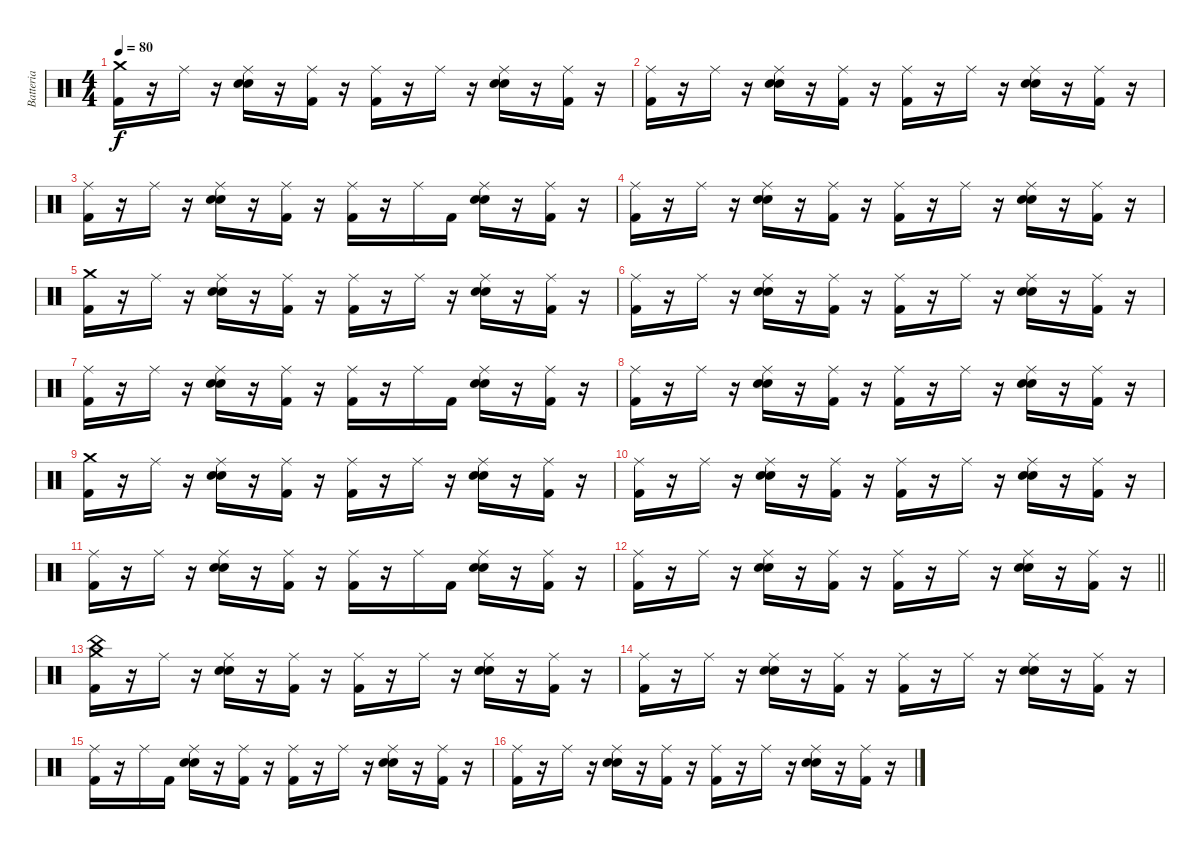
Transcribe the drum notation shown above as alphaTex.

\track ("Batteria" "Batteria") {instrument percussion}
\staff {score}
\articulation defaults
\ts (4 4)
\tempo 80
\clef neutral
\ks c
("Kick (hit) 2" "Crash medium (hit)").16{dy f} r.16 "Ride (middle)".16 r.16 ("Snare (hit) 2" "Snare (hit) 2" "Ride (middle)").16 r.16 ("Kick (hit) 2" "Ride (middle)").16 r.16 ("Kick (hit) 2" "Ride (middle)").16 r.16 "Ride (middle)".16 r.16 ("Snare (hit) 2" "Snare (hit) 2" "Ride (middle)").16 r.16 ("Kick (hit) 2" "Ride (middle)").16 r.16 |
("Kick (hit) 2" "Ride (middle)").16 r.16 "Ride (middle)".16 r.16 ("Snare (hit) 2" "Snare (hit) 2" "Ride (middle)").16 r.16 ("Kick (hit) 2" "Ride (middle)").16 r.16 ("Kick (hit) 2" "Ride (middle)").16 r.16 "Ride (middle)".16 r.16 ("Snare (hit) 2" "Snare (hit) 2" "Ride (middle)").16 r.16 ("Kick (hit) 2" "Ride (middle)").16 r.16 |
("Kick (hit) 2" "Ride (middle)").16 r.16 "Ride (middle)".16 r.16 ("Snare (hit) 2" "Snare (hit) 2" "Ride (middle)").16 r.16 ("Kick (hit) 2" "Ride (middle)").16 r.16 ("Kick (hit) 2" "Ride (middle)").16 r.16 "Ride (middle)".16 "Kick (hit) 2".16 ("Snare (hit) 2" "Snare (hit) 2" "Ride (middle)").16 r.16 ("Kick (hit) 2" "Ride (middle)").16 r.16 |
("Kick (hit) 2" "Ride (middle)").16 r.16 "Ride (middle)".16 r.16 ("Snare (hit) 2" "Snare (hit) 2" "Ride (middle)").16 r.16 ("Kick (hit) 2" "Ride (middle)").16 r.16 ("Kick (hit) 2" "Ride (middle)").16 r.16 "Ride (middle)".16 r.16 ("Snare (hit) 2" "Snare (hit) 2" "Ride (middle)").16 r.16 ("Kick (hit) 2" "Ride (middle)").16 r.16 |
("Kick (hit) 2" "Crash medium (hit)").16 r.16 "Ride (middle)".16 r.16 ("Snare (hit) 2" "Snare (hit) 2" "Ride (middle)").16 r.16 ("Kick (hit) 2" "Ride (middle)").16 r.16 ("Kick (hit) 2" "Ride (middle)").16 r.16 "Ride (middle)".16 r.16 ("Snare (hit) 2" "Snare (hit) 2" "Ride (middle)").16 r.16 ("Kick (hit) 2" "Ride (middle)").16 r.16 |
("Kick (hit) 2" "Ride (middle)").16 r.16 "Ride (middle)".16 r.16 ("Snare (hit) 2" "Snare (hit) 2" "Ride (middle)").16 r.16 ("Kick (hit) 2" "Ride (middle)").16 r.16 ("Kick (hit) 2" "Ride (middle)").16 r.16 "Ride (middle)".16 r.16 ("Snare (hit) 2" "Snare (hit) 2" "Ride (middle)").16 r.16 ("Kick (hit) 2" "Ride (middle)").16 r.16 |
("Kick (hit) 2" "Ride (middle)").16 r.16 "Ride (middle)".16 r.16 ("Snare (hit) 2" "Snare (hit) 2" "Ride (middle)").16 r.16 ("Kick (hit) 2" "Ride (middle)").16 r.16 ("Kick (hit) 2" "Ride (middle)").16 r.16 "Ride (middle)".16 "Kick (hit) 2".16 ("Snare (hit) 2" "Snare (hit) 2" "Ride (middle)").16 r.16 ("Kick (hit) 2" "Ride (middle)").16 r.16 |
("Kick (hit) 2" "Ride (middle)").16 r.16 "Ride (middle)".16 r.16 ("Snare (hit) 2" "Snare (hit) 2" "Ride (middle)").16 r.16 ("Kick (hit) 2" "Ride (middle)").16 r.16 ("Kick (hit) 2" "Ride (middle)").16 r.16 "Ride (middle)".16 r.16 ("Snare (hit) 2" "Snare (hit) 2" "Ride (middle)").16 r.16 ("Kick (hit) 2" "Ride (middle)").16 r.16 |
("Kick (hit) 2" "Crash medium (hit)").16 r.16 "Ride (middle)".16 r.16 ("Snare (hit) 2" "Snare (hit) 2" "Ride (middle)").16 r.16 ("Kick (hit) 2" "Ride (middle)").16 r.16 ("Kick (hit) 2" "Ride (middle)").16 r.16 "Ride (middle)".16 r.16 ("Snare (hit) 2" "Snare (hit) 2" "Ride (middle)").16 r.16 ("Kick (hit) 2" "Ride (middle)").16 r.16 |
("Kick (hit) 2" "Ride (middle)").16 r.16 "Ride (middle)".16 r.16 ("Snare (hit) 2" "Snare (hit) 2" "Ride (middle)").16 r.16 ("Kick (hit) 2" "Ride (middle)").16 r.16 ("Kick (hit) 2" "Ride (middle)").16 r.16 "Ride (middle)".16 r.16 ("Snare (hit) 2" "Snare (hit) 2" "Ride (middle)").16 r.16 ("Kick (hit) 2" "Ride (middle)").16 r.16 |
("Kick (hit) 2" "Ride (middle)").16 r.16 "Ride (middle)".16 r.16 ("Snare (hit) 2" "Snare (hit) 2" "Ride (middle)").16 r.16 ("Kick (hit) 2" "Ride (middle)").16 r.16 ("Kick (hit) 2" "Ride (middle)").16 r.16 "Ride (middle)".16 "Kick (hit) 2".16 ("Snare (hit) 2" "Snare (hit) 2" "Ride (middle)").16 r.16 ("Kick (hit) 2" "Ride (middle)").16 r.16 |
\barLineRight lightlight
("Kick (hit) 2" "Ride (middle)").16 r.16 "Ride (middle)".16 r.16 ("Snare (hit) 2" "Snare (hit) 2" "Ride (middle)").16 r.16 ("Kick (hit) 2" "Ride (middle)").16 r.16 ("Kick (hit) 2" "Ride (middle)").16 r.16 "Ride (middle)".16 r.16 ("Snare (hit) 2" "Snare (hit) 2" "Ride (middle)").16 r.16 ("Kick (hit) 2" "Ride (middle)").16 r.16 |
("Kick (hit) 2" "China (hit)" "Crash medium (hit)").16 r.16 "Ride (middle)".16 r.16 ("Snare (hit) 2" "Snare (hit) 2" "Ride (middle)").16 r.16 ("Kick (hit) 2" "Ride (middle)").16 r.16 ("Kick (hit) 2" "Ride (middle)").16 r.16 "Ride (middle)".16 r.16 ("Snare (hit) 2" "Snare (hit) 2" "Ride (middle)").16 r.16 ("Kick (hit) 2" "Ride (middle)").16 r.16 |
("Kick (hit) 2" "Ride (middle)").16 r.16 "Ride (middle)".16 r.16 ("Snare (hit) 2" "Snare (hit) 2" "Ride (middle)").16 r.16 ("Kick (hit) 2" "Ride (middle)").16 r.16 ("Kick (hit) 2" "Ride (middle)").16 r.16 "Ride (middle)".16 r.16 ("Snare (hit) 2" "Snare (hit) 2" "Ride (middle)").16 r.16 ("Kick (hit) 2" "Ride (middle)").16 r.16 |
("Kick (hit) 2" "Ride (middle)").16 r.16 "Ride (middle)".16 "Kick (hit) 2".16 ("Snare (hit) 2" "Snare (hit) 2" "Ride (middle)").16 r.16 ("Kick (hit) 2" "Ride (middle)").16 r.16 ("Kick (hit) 2" "Ride (middle)").16 r.16 "Ride (middle)".16 r.16 ("Snare (hit) 2" "Snare (hit) 2" "Ride (middle)").16 r.16 ("Kick (hit) 2" "Ride (middle)").16 r.16 |
("Kick (hit) 2" "Ride (middle)").16 r.16 "Ride (middle)".16 r.16 ("Snare (hit) 2" "Snare (hit) 2" "Ride (middle)").16 r.16 ("Kick (hit) 2" "Ride (middle)").16 r.16 ("Kick (hit) 2" "Ride (middle)").16 r.16 "Ride (middle)".16 r.16 ("Snare (hit) 2" "Snare (hit) 2" "Ride (middle)").16 r.16 ("Kick (hit) 2" "Ride (middle)").16 r.16
